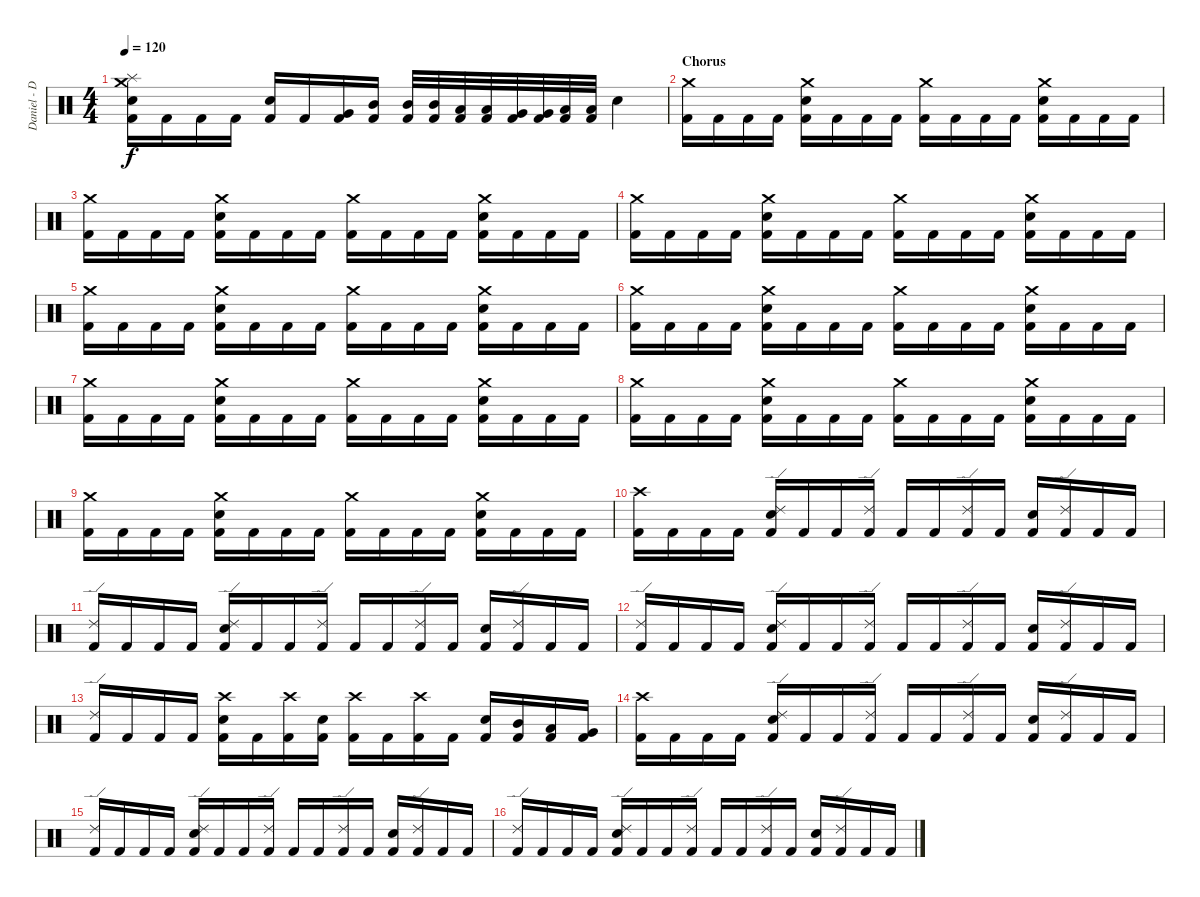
\track ("Daniel - Drums" "Daniel - D") {instrument percussion}
\staff {score}
\articulation defaults
\ts (4 4)
\tempo 120
\clef neutral
\ks c
("Crash medium (hit)" "Splash (hit)" "Electric Snare (hit)" "Kick (hit) 2").16{dy f} "Kick (hit) 2".16 "Kick (hit) 2".16 "Kick (hit) 2".16 ("Electric Snare (hit)" "Kick (hit) 2").16 "Kick (hit) 2".16 ("Very Low Tom (hit)" "Kick (hit) 2").16 ("Mid Tom (hit)" "Kick (hit) 2").16 ("Mid Tom (hit)" "Kick (hit) 2").32 ("Mid Tom (hit)" "Kick (hit) 2").32 ("Low Tom (hit)" "Kick (hit) 2").32 ("Low Tom (hit)" "Kick (hit) 2").32 ("Very Low Tom (hit)" "Kick (hit) 2").32 ("Very Low Tom (hit)" "Kick (hit) 2").32 ("Low Floor Tom (hit)" "Kick (hit) 2").32 ("Low Floor Tom (hit)" "Kick (hit) 2").32 "Electric Snare (hit)".4 |
\section ("" "Chorus")
("Crash medium (hit)" "Kick (hit) 2").16 "Kick (hit) 2".16 "Kick (hit) 2".16 "Kick (hit) 2".16 ("Crash medium (hit)" "Electric Snare (hit)" "Kick (hit) 2").16 "Kick (hit) 2".16 "Kick (hit) 2".16 "Kick (hit) 2".16 ("Crash medium (hit)" "Kick (hit) 2").16 "Kick (hit) 2".16 "Kick (hit) 2".16 "Kick (hit) 2".16 ("Crash medium (hit)" "Electric Snare (hit)" "Kick (hit) 2").16 "Kick (hit) 2".16 "Kick (hit) 2".16 "Kick (hit) 2".16 |
("Crash medium (hit)" "Kick (hit) 2").16 "Kick (hit) 2".16 "Kick (hit) 2".16 "Kick (hit) 2".16 ("Crash medium (hit)" "Electric Snare (hit)" "Kick (hit) 2").16 "Kick (hit) 2".16 "Kick (hit) 2".16 "Kick (hit) 2".16 ("Crash medium (hit)" "Kick (hit) 2").16 "Kick (hit) 2".16 "Kick (hit) 2".16 "Kick (hit) 2".16 ("Crash medium (hit)" "Electric Snare (hit)" "Kick (hit) 2").16 "Kick (hit) 2".16 "Kick (hit) 2".16 "Kick (hit) 2".16 |
("Crash medium (hit)" "Kick (hit) 2").16 "Kick (hit) 2".16 "Kick (hit) 2".16 "Kick (hit) 2".16 ("Crash medium (hit)" "Electric Snare (hit)" "Kick (hit) 2").16 "Kick (hit) 2".16 "Kick (hit) 2".16 "Kick (hit) 2".16 ("Crash medium (hit)" "Kick (hit) 2").16 "Kick (hit) 2".16 "Kick (hit) 2".16 "Kick (hit) 2".16 ("Crash medium (hit)" "Electric Snare (hit)" "Kick (hit) 2").16 "Kick (hit) 2".16 "Kick (hit) 2".16 "Kick (hit) 2".16 |
("Crash medium (hit)" "Kick (hit) 2").16 "Kick (hit) 2".16 "Kick (hit) 2".16 "Kick (hit) 2".16 ("Crash medium (hit)" "Electric Snare (hit)" "Kick (hit) 2").16 "Kick (hit) 2".16 "Kick (hit) 2".16 "Kick (hit) 2".16 ("Crash medium (hit)" "Kick (hit) 2").16 "Kick (hit) 2".16 "Kick (hit) 2".16 "Kick (hit) 2".16 ("Crash medium (hit)" "Electric Snare (hit)" "Kick (hit) 2").16 "Kick (hit) 2".16 "Kick (hit) 2".16 "Kick (hit) 2".16 |
("Crash medium (hit)" "Kick (hit) 2").16 "Kick (hit) 2".16 "Kick (hit) 2".16 "Kick (hit) 2".16 ("Crash medium (hit)" "Electric Snare (hit)" "Kick (hit) 2").16 "Kick (hit) 2".16 "Kick (hit) 2".16 "Kick (hit) 2".16 ("Crash medium (hit)" "Kick (hit) 2").16 "Kick (hit) 2".16 "Kick (hit) 2".16 "Kick (hit) 2".16 ("Crash medium (hit)" "Electric Snare (hit)" "Kick (hit) 2").16 "Kick (hit) 2".16 "Kick (hit) 2".16 "Kick (hit) 2".16 |
("Crash medium (hit)" "Kick (hit) 2").16 "Kick (hit) 2".16 "Kick (hit) 2".16 "Kick (hit) 2".16 ("Crash medium (hit)" "Electric Snare (hit)" "Kick (hit) 2").16 "Kick (hit) 2".16 "Kick (hit) 2".16 "Kick (hit) 2".16 ("Crash medium (hit)" "Kick (hit) 2").16 "Kick (hit) 2".16 "Kick (hit) 2".16 "Kick (hit) 2".16 ("Crash medium (hit)" "Electric Snare (hit)" "Kick (hit) 2").16 "Kick (hit) 2".16 "Kick (hit) 2".16 "Kick (hit) 2".16 |
("Crash medium (hit)" "Kick (hit) 2").16 "Kick (hit) 2".16 "Kick (hit) 2".16 "Kick (hit) 2".16 ("Crash medium (hit)" "Electric Snare (hit)" "Kick (hit) 2").16 "Kick (hit) 2".16 "Kick (hit) 2".16 "Kick (hit) 2".16 ("Crash medium (hit)" "Kick (hit) 2").16 "Kick (hit) 2".16 "Kick (hit) 2".16 "Kick (hit) 2".16 ("Crash medium (hit)" "Electric Snare (hit)" "Kick (hit) 2").16 "Kick (hit) 2".16 "Kick (hit) 2".16 "Kick (hit) 2".16 |
("Crash medium (hit)" "Kick (hit) 2").16 "Kick (hit) 2".16 "Kick (hit) 2".16 "Kick (hit) 2".16 ("Crash medium (hit)" "Electric Snare (hit)" "Kick (hit) 2").16 "Kick (hit) 2".16 "Kick (hit) 2".16 "Kick (hit) 2".16 ("Crash medium (hit)" "Kick (hit) 2").16 "Kick (hit) 2".16 "Kick (hit) 2".16 "Kick (hit) 2".16 ("Crash medium (hit)" "Electric Snare (hit)" "Kick (hit) 2").16 "Kick (hit) 2".16 "Kick (hit) 2".16 "Kick (hit) 2".16 |
("Crash high (hit)" "Kick (hit) 2").16 "Kick (hit) 2".16 "Kick (hit) 2".16 "Kick (hit) 2".16 ("Ride (edge) 2" "Electric Snare (hit)" "Kick (hit) 2").16 "Kick (hit) 2".16 "Kick (hit) 2".16 ("Ride (edge) 2" "Kick (hit) 2").16 "Kick (hit) 2".16 "Kick (hit) 2".16 ("Ride (edge) 2" "Kick (hit) 2").16 "Kick (hit) 2".16 ("Electric Snare (hit)" "Kick (hit) 2").16 ("Ride (edge) 2" "Kick (hit) 2").16 "Kick (hit) 2".16 "Kick (hit) 2".16 |
("Ride (edge) 2" "Kick (hit) 2").16 "Kick (hit) 2".16 "Kick (hit) 2".16 "Kick (hit) 2".16 ("Ride (edge) 2" "Electric Snare (hit)" "Kick (hit) 2").16 "Kick (hit) 2".16 "Kick (hit) 2".16 ("Ride (edge) 2" "Kick (hit) 2").16 "Kick (hit) 2".16 "Kick (hit) 2".16 ("Ride (edge) 2" "Kick (hit) 2").16 "Kick (hit) 2".16 ("Electric Snare (hit)" "Kick (hit) 2").16 ("Ride (edge) 2" "Kick (hit) 2").16 "Kick (hit) 2".16 "Kick (hit) 2".16 |
("Ride (edge) 2" "Kick (hit) 2").16 "Kick (hit) 2".16 "Kick (hit) 2".16 "Kick (hit) 2".16 ("Ride (edge) 2" "Electric Snare (hit)" "Kick (hit) 2").16 "Kick (hit) 2".16 "Kick (hit) 2".16 ("Ride (edge) 2" "Kick (hit) 2").16 "Kick (hit) 2".16 "Kick (hit) 2".16 ("Ride (edge) 2" "Kick (hit) 2").16 "Kick (hit) 2".16 ("Electric Snare (hit)" "Kick (hit) 2").16 ("Ride (edge) 2" "Kick (hit) 2").16 "Kick (hit) 2".16 "Kick (hit) 2".16 |
("Ride (edge) 2" "Kick (hit) 2").16 "Kick (hit) 2".16 "Kick (hit) 2".16 "Kick (hit) 2".16 ("Crash high (hit)" "Electric Snare (hit)" "Kick (hit) 2").16 "Kick (hit) 2".16 ("Crash high (hit)" "Kick (hit) 2").16 ("Electric Snare (hit)" "Kick (hit) 2").16 ("Crash high (hit)" "Kick (hit) 2").16 "Kick (hit) 2".16 ("Crash high (hit)" "Kick (hit) 2").16 "Kick (hit) 2".16 ("Electric Snare (hit)" "Kick (hit) 2").16 ("Mid Tom (hit)" "Kick (hit) 2").16 ("Low Tom (hit)" "Kick (hit) 2").16 ("Very Low Tom (hit)" "Kick (hit) 2").16 |
("Crash high (hit)" "Kick (hit) 2").16 "Kick (hit) 2".16 "Kick (hit) 2".16 "Kick (hit) 2".16 ("Ride (edge) 2" "Electric Snare (hit)" "Kick (hit) 2").16 "Kick (hit) 2".16 "Kick (hit) 2".16 ("Ride (edge) 2" "Kick (hit) 2").16 "Kick (hit) 2".16 "Kick (hit) 2".16 ("Ride (edge) 2" "Kick (hit) 2").16 "Kick (hit) 2".16 ("Electric Snare (hit)" "Kick (hit) 2").16 ("Ride (edge) 2" "Kick (hit) 2").16 "Kick (hit) 2".16 "Kick (hit) 2".16 |
("Ride (edge) 2" "Kick (hit) 2").16 "Kick (hit) 2".16 "Kick (hit) 2".16 "Kick (hit) 2".16 ("Ride (edge) 2" "Electric Snare (hit)" "Kick (hit) 2").16 "Kick (hit) 2".16 "Kick (hit) 2".16 ("Ride (edge) 2" "Kick (hit) 2").16 "Kick (hit) 2".16 "Kick (hit) 2".16 ("Ride (edge) 2" "Kick (hit) 2").16 "Kick (hit) 2".16 ("Electric Snare (hit)" "Kick (hit) 2").16 ("Ride (edge) 2" "Kick (hit) 2").16 "Kick (hit) 2".16 "Kick (hit) 2".16 |
("Ride (edge) 2" "Kick (hit) 2").16 "Kick (hit) 2".16 "Kick (hit) 2".16 "Kick (hit) 2".16 ("Ride (edge) 2" "Electric Snare (hit)" "Kick (hit) 2").16 "Kick (hit) 2".16 "Kick (hit) 2".16 ("Ride (edge) 2" "Kick (hit) 2").16 "Kick (hit) 2".16 "Kick (hit) 2".16 ("Ride (edge) 2" "Kick (hit) 2").16 "Kick (hit) 2".16 ("Electric Snare (hit)" "Kick (hit) 2").16 ("Ride (edge) 2" "Kick (hit) 2").16 "Kick (hit) 2".16 "Kick (hit) 2".16
